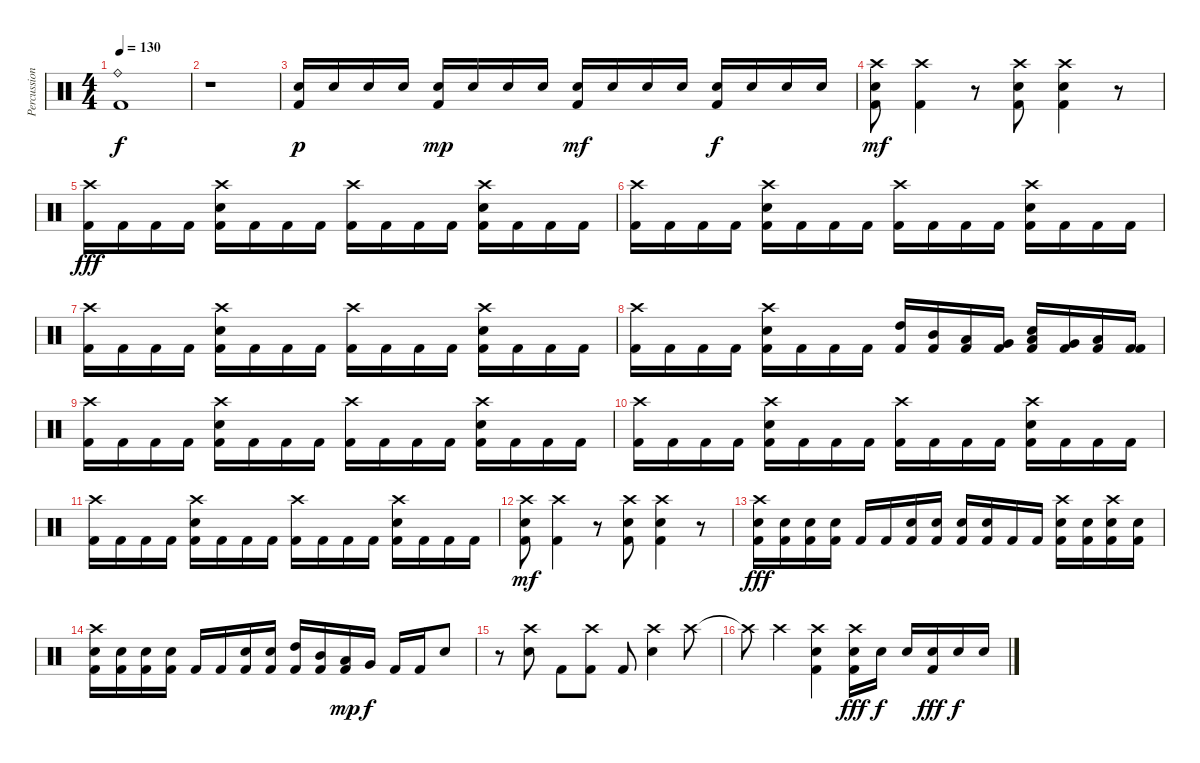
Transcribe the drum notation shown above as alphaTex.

\track ("Percussion" "Percussion") {instrument percussion}
\staff {score}
\articulation defaults
\ts (4 4)
\tempo 130
\clef neutral
\ks c
("Ride (bell)" "Kick (hit) 2").1{dy f} |
r.1 |
("Electric Snare (hit)" "Kick (hit) 2").16{dy p} "Electric Snare (hit)".16 "Electric Snare (hit)".16 "Electric Snare (hit)".16 ("Electric Snare (hit)" "Kick (hit) 2").16{dy mp} "Electric Snare (hit)".16 "Electric Snare (hit)".16 "Electric Snare (hit)".16 ("Electric Snare (hit)" "Kick (hit) 2").16{dy mf} "Electric Snare (hit)".16 "Electric Snare (hit)".16 "Electric Snare (hit)".16 ("Electric Snare (hit)" "Kick (hit) 2").16{dy f} "Electric Snare (hit)".16 "Electric Snare (hit)".16 "Electric Snare (hit)".16 |
("Crash high (hit)" "Electric Snare (hit)" "Kick (hit) 2").8{dy mf} ("Crash high (hit)" "Kick (hit) 2").4 r.8 ("Crash high (hit)" "Electric Snare (hit)" "Kick (hit) 2").8 ("Crash high (hit)" "Electric Snare (hit)" "Kick (hit) 2").4 r.8 |
("Crash high (hit)" "Kick (hit) 2").16{dy fff} "Kick (hit) 2".16 "Kick (hit) 2".16 "Kick (hit) 2".16 ("Crash high (hit)" "Electric Snare (hit)" "Kick (hit) 2").16 "Kick (hit) 2".16 "Kick (hit) 2".16 "Kick (hit) 2".16 ("Crash high (hit)" "Kick (hit) 2").16 "Kick (hit) 2".16 "Kick (hit) 2".16 "Kick (hit) 2".16 ("Crash high (hit)" "Electric Snare (hit)" "Kick (hit) 2").16 "Kick (hit) 2".16 "Kick (hit) 2".16 "Kick (hit) 2".16 |
("Crash high (hit)" "Kick (hit) 2").16 "Kick (hit) 2".16 "Kick (hit) 2".16 "Kick (hit) 2".16 ("Crash high (hit)" "Electric Snare (hit)" "Kick (hit) 2").16 "Kick (hit) 2".16 "Kick (hit) 2".16 "Kick (hit) 2".16 ("Crash high (hit)" "Kick (hit) 2").16 "Kick (hit) 2".16 "Kick (hit) 2".16 "Kick (hit) 2".16 ("Crash high (hit)" "Electric Snare (hit)" "Kick (hit) 2").16 "Kick (hit) 2".16 "Kick (hit) 2".16 "Kick (hit) 2".16 |
("Crash high (hit)" "Kick (hit) 2").16 "Kick (hit) 2".16 "Kick (hit) 2".16 "Kick (hit) 2".16 ("Crash high (hit)" "Electric Snare (hit)" "Kick (hit) 2").16 "Kick (hit) 2".16 "Kick (hit) 2".16 "Kick (hit) 2".16 ("Crash high (hit)" "Kick (hit) 2").16 "Kick (hit) 2".16 "Kick (hit) 2".16 "Kick (hit) 2".16 ("Crash high (hit)" "Electric Snare (hit)" "Kick (hit) 2").16 "Kick (hit) 2".16 "Kick (hit) 2".16 "Kick (hit) 2".16 |
("Crash high (hit)" "Kick (hit) 2").16 "Kick (hit) 2".16 "Kick (hit) 2".16 "Kick (hit) 2".16 ("Crash high (hit)" "Electric Snare (hit)" "Kick (hit) 2").16 "Kick (hit) 2".16 "Kick (hit) 2".16 "Kick (hit) 2".16 ("High Tom (hit)" "Kick (hit) 2").16 ("Mid Tom (hit)" "Kick (hit) 2").16 ("Low Tom (hit)" "Kick (hit) 2").16 ("Very Low Tom (hit)" "Kick (hit) 2").16 ("Low Tom (hit)" "Electric Snare (hit)" "Kick (hit) 2").16 ("Very Low Tom (hit)" "Kick (hit) 2").16 ("Low Floor Tom (hit)" "Kick (hit) 2").16 ("Kick (hit) 2" "Kick (hit) 2").16 |
("Crash high (hit)" "Kick (hit) 2").16 "Kick (hit) 2".16 "Kick (hit) 2".16 "Kick (hit) 2".16 ("Crash high (hit)" "Electric Snare (hit)" "Kick (hit) 2").16 "Kick (hit) 2".16 "Kick (hit) 2".16 "Kick (hit) 2".16 ("Crash high (hit)" "Kick (hit) 2").16 "Kick (hit) 2".16 "Kick (hit) 2".16 "Kick (hit) 2".16 ("Crash high (hit)" "Electric Snare (hit)" "Kick (hit) 2").16 "Kick (hit) 2".16 "Kick (hit) 2".16 "Kick (hit) 2".16 |
("Crash high (hit)" "Kick (hit) 2").16 "Kick (hit) 2".16 "Kick (hit) 2".16 "Kick (hit) 2".16 ("Crash high (hit)" "Electric Snare (hit)" "Kick (hit) 2").16 "Kick (hit) 2".16 "Kick (hit) 2".16 "Kick (hit) 2".16 ("Crash high (hit)" "Kick (hit) 2").16 "Kick (hit) 2".16 "Kick (hit) 2".16 "Kick (hit) 2".16 ("Crash high (hit)" "Electric Snare (hit)" "Kick (hit) 2").16 "Kick (hit) 2".16 "Kick (hit) 2".16 "Kick (hit) 2".16 |
("Crash high (hit)" "Kick (hit) 2").16 "Kick (hit) 2".16 "Kick (hit) 2".16 "Kick (hit) 2".16 ("Crash high (hit)" "Electric Snare (hit)" "Kick (hit) 2").16 "Kick (hit) 2".16 "Kick (hit) 2".16 "Kick (hit) 2".16 ("Crash high (hit)" "Kick (hit) 2").16 "Kick (hit) 2".16 "Kick (hit) 2".16 "Kick (hit) 2".16 ("Crash high (hit)" "Electric Snare (hit)" "Kick (hit) 2").16 "Kick (hit) 2".16 "Kick (hit) 2".16 "Kick (hit) 2".16 |
("Crash high (hit)" "Electric Snare (hit)" "Kick (hit) 2").8{dy mf} ("Crash high (hit)" "Kick (hit) 2").4 r.8 ("Crash high (hit)" "Electric Snare (hit)" "Kick (hit) 2").8 ("Crash high (hit)" "Electric Snare (hit)" "Kick (hit) 2").4 r.8 |
("Crash high (hit)" "Electric Snare (hit)" "Kick (hit) 2").16{dy fff} ("Electric Snare (hit)" "Kick (hit) 2").16 ("Electric Snare (hit)" "Kick (hit) 2").16 ("Electric Snare (hit)" "Kick (hit) 2").16 "Kick (hit) 2".16 "Kick (hit) 2".16 ("Electric Snare (hit)" "Kick (hit) 2").16 ("Electric Snare (hit)" "Kick (hit) 2").16 ("Electric Snare (hit)" "Kick (hit) 2").16 ("Electric Snare (hit)" "Kick (hit) 2").16 "Kick (hit) 2".16 "Kick (hit) 2".16 ("Crash high (hit)" "Electric Snare (hit)" "Kick (hit) 2").16 ("Electric Snare (hit)" "Kick (hit) 2").16 ("Crash high (hit)" "Electric Snare (hit)" "Kick (hit) 2").16 ("Electric Snare (hit)" "Kick (hit) 2").16 |
("Crash high (hit)" "Electric Snare (hit)" "Kick (hit) 2").16 ("Electric Snare (hit)" "Kick (hit) 2").16 ("Electric Snare (hit)" "Kick (hit) 2").16 ("Electric Snare (hit)" "Kick (hit) 2").16 "Kick (hit) 2".16 "Kick (hit) 2".16 ("Electric Snare (hit)" "Kick (hit) 2").16 ("Electric Snare (hit)" "Kick (hit) 2").16 ("High Tom (hit)" "Kick (hit) 2").16 ("Mid Tom (hit)" "Kick (hit) 2").16 ("Low Tom (hit)" "Kick (hit) 2").16{dy mp} "Very Low Tom (hit)".16{dy f} "Kick (hit) 2".16 "Kick (hit) 2".16 "Electric Snare (hit)".8 |
r.8 ("Crash high (hit)" "Electric Snare (hit)").8 "Kick (hit) 2".8 ("Crash high (hit)" "Kick (hit) 2").8 "Kick (hit) 2".8 ("Crash high (hit)" "Electric Snare (hit)").4 "Crash high (hit)".8 |
"Crash high (hit)"{t}.8 "Crash high (hit)".4 ("Crash high (hit)" "Electric Snare (hit)" "Kick (hit) 2").4 ("Crash high (hit)" "Electric Snare (hit)" "Kick (hit) 2").16{dy fff} "Electric Snare (hit)".16{dy f} "Electric Snare (hit)".16 ("Electric Snare (hit)" "Kick (hit) 2").16{dy fff} "Electric Snare (hit)".16{dy f} "Electric Snare (hit)".16
